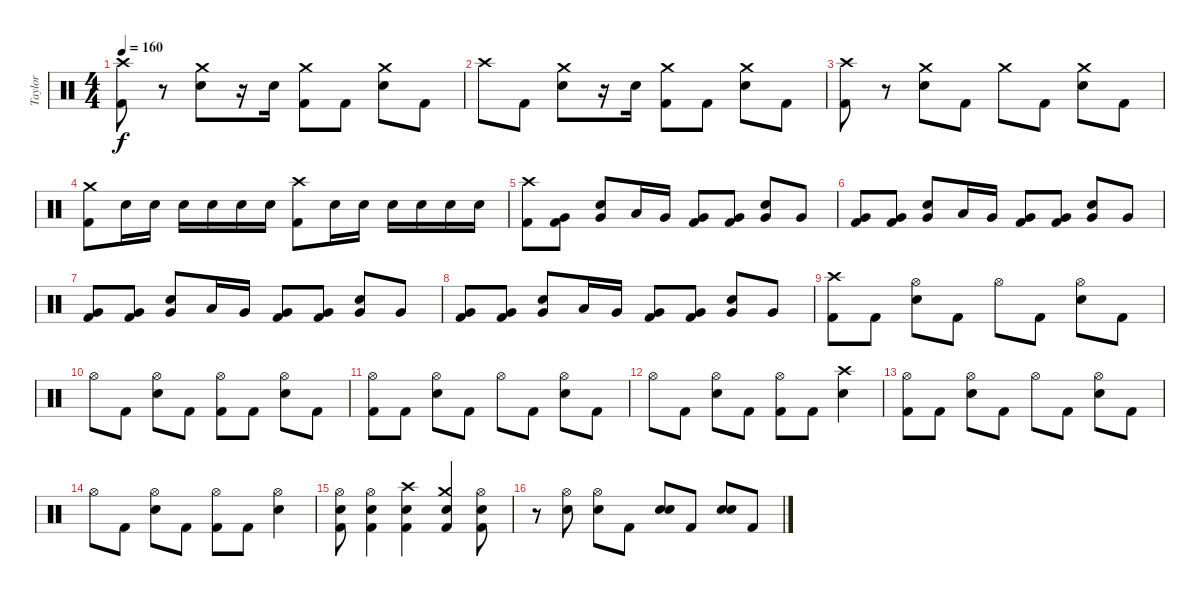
\track ("Taylor" "Taylor") {instrument percussion}
\staff {score}
\articulation defaults
\ts (4 4)
\tempo 160
\clef neutral
\ks c
("Crash high (hit)" "Kick (hit) 2").8{dy f} r.8 ("Crash medium (hit)" "Electric Snare (hit)").8 r.16 "Electric Snare (hit)".16 ("Crash medium (hit)" "Kick (hit) 2").8 "Kick (hit) 2".8 ("Crash medium (hit)" "Electric Snare (hit)").8 "Kick (hit) 2".8 |
"Crash high (hit)".8 "Kick (hit) 2".8 ("Crash medium (hit)" "Electric Snare (hit)").8 r.16 "Electric Snare (hit)".16 ("Crash medium (hit)" "Kick (hit) 2").8 "Kick (hit) 2".8 ("Crash medium (hit)" "Electric Snare (hit)").8 "Kick (hit) 2".8 |
("Crash high (hit)" "Kick (hit) 2").8 r.8 ("Crash medium (hit)" "Electric Snare (hit)").8 "Kick (hit) 2".8 "Crash medium (hit)".8 "Kick (hit) 2".8 ("Crash medium (hit)" "Electric Snare (hit)").8 "Kick (hit) 2".8 |
("Crash medium (hit)" "Kick (hit) 2").8 "Electric Snare (hit)".16 "Electric Snare (hit)".16 "Electric Snare (hit)".16 "Electric Snare (hit)".16 "Electric Snare (hit)".16 "Electric Snare (hit)".16 ("Crash high (hit)" "Kick (hit) 2").8 "Electric Snare (hit)".16 "Electric Snare (hit)".16 "Electric Snare (hit)".16 "Electric Snare (hit)".16 "Electric Snare (hit)".16 "Electric Snare (hit)".16 |
("Crash high (hit)" "Kick (hit) 2").8 ("Very Low Tom (hit)" "Kick (hit) 2").8 ("Very Low Tom (hit)" "Electric Snare (hit)").8 "Low Tom (hit)".16 "Very Low Tom (hit)".16 ("Very Low Tom (hit)" "Kick (hit) 2").8 ("Very Low Tom (hit)" "Kick (hit) 2").8 ("Very Low Tom (hit)" "Electric Snare (hit)").8 "Very Low Tom (hit)".8 |
("Very Low Tom (hit)" "Kick (hit) 2").8 ("Very Low Tom (hit)" "Kick (hit) 2").8 ("Very Low Tom (hit)" "Electric Snare (hit)").8 "Low Tom (hit)".16 "Very Low Tom (hit)".16 ("Very Low Tom (hit)" "Kick (hit) 2").8 ("Very Low Tom (hit)" "Kick (hit) 2").8 ("Very Low Tom (hit)" "Electric Snare (hit)").8 "Very Low Tom (hit)".8 |
("Very Low Tom (hit)" "Kick (hit) 2").8 ("Very Low Tom (hit)" "Kick (hit) 2").8 ("Very Low Tom (hit)" "Electric Snare (hit)").8 "Low Tom (hit)".16 "Very Low Tom (hit)".16 ("Very Low Tom (hit)" "Kick (hit) 2").8 ("Very Low Tom (hit)" "Kick (hit) 2").8 ("Very Low Tom (hit)" "Electric Snare (hit)").8 "Very Low Tom (hit)".8 |
("Very Low Tom (hit)" "Kick (hit) 2").8 ("Very Low Tom (hit)" "Kick (hit) 2").8 ("Very Low Tom (hit)" "Electric Snare (hit)").8 "Low Tom (hit)".16 "Very Low Tom (hit)".16 ("Very Low Tom (hit)" "Kick (hit) 2").8 ("Very Low Tom (hit)" "Kick (hit) 2").8 ("Very Low Tom (hit)" "Electric Snare (hit)").8 "Very Low Tom (hit)".8 |
("Crash high (hit)" "Kick (hit) 2").8 "Kick (hit) 2".8 ("Hi-Hat (open)" "Electric Snare (hit)").8 "Kick (hit) 2".8 "Hi-Hat (open)".8 "Kick (hit) 2".8 ("Hi-Hat (open)" "Electric Snare (hit)").8 "Kick (hit) 2".8 |
"Hi-Hat (open)".8 "Kick (hit) 2".8 ("Hi-Hat (open)" "Electric Snare (hit)").8 "Kick (hit) 2".8 ("Hi-Hat (open)" "Kick (hit) 2").8 "Kick (hit) 2".8 ("Hi-Hat (open)" "Electric Snare (hit)").8 "Kick (hit) 2".8 |
("Hi-Hat (open)" "Kick (hit) 2").8 "Kick (hit) 2".8 ("Hi-Hat (open)" "Electric Snare (hit)").8 "Kick (hit) 2".8 "Hi-Hat (open)".8 "Kick (hit) 2".8 ("Hi-Hat (open)" "Electric Snare (hit)").8 "Kick (hit) 2".8 |
"Hi-Hat (open)".8 "Kick (hit) 2".8 ("Hi-Hat (open)" "Electric Snare (hit)").8 "Kick (hit) 2".8 ("Hi-Hat (open)" "Kick (hit) 2").8 "Kick (hit) 2".8 ("Crash high (hit)" "Electric Snare (hit)").4 |
("Hi-Hat (open)" "Kick (hit) 2").8 "Kick (hit) 2".8 ("Hi-Hat (open)" "Electric Snare (hit)").8 "Kick (hit) 2".8 "Hi-Hat (open)".8 "Kick (hit) 2".8 ("Hi-Hat (open)" "Electric Snare (hit)").8 "Kick (hit) 2".8 |
"Hi-Hat (open)".8 "Kick (hit) 2".8 ("Hi-Hat (open)" "Electric Snare (hit)").8 "Kick (hit) 2".8 ("Hi-Hat (open)" "Kick (hit) 2").8 "Kick (hit) 2".8 ("Hi-Hat (open)" "Electric Snare (hit)").4 |
("Hi-Hat (open)" "Electric Snare (hit)" "Kick (hit) 2").8 ("Hi-Hat (open)" "Electric Snare (hit)" "Kick (hit) 2").4 ("Crash high (hit)" "Electric Snare (hit)" "Kick (hit) 2").4 ("Crash medium (hit)" "Electric Snare (hit)" "Kick (hit) 2").4 ("Hi-Hat (open)" "Electric Snare (hit)" "Kick (hit) 2").8 |
r.8 ("Hi-Hat (open)" "Electric Snare (hit)").8 ("Hi-Hat (open)" "Electric Snare (hit)").8 "Kick (hit) 2".8 ("Electric Snare (hit)" "Electric Snare (hit)").8{bu 240} "Kick (hit) 2".8 ("Electric Snare (hit)" "Electric Snare (hit)").8{bu 240} "Kick (hit) 2".8
